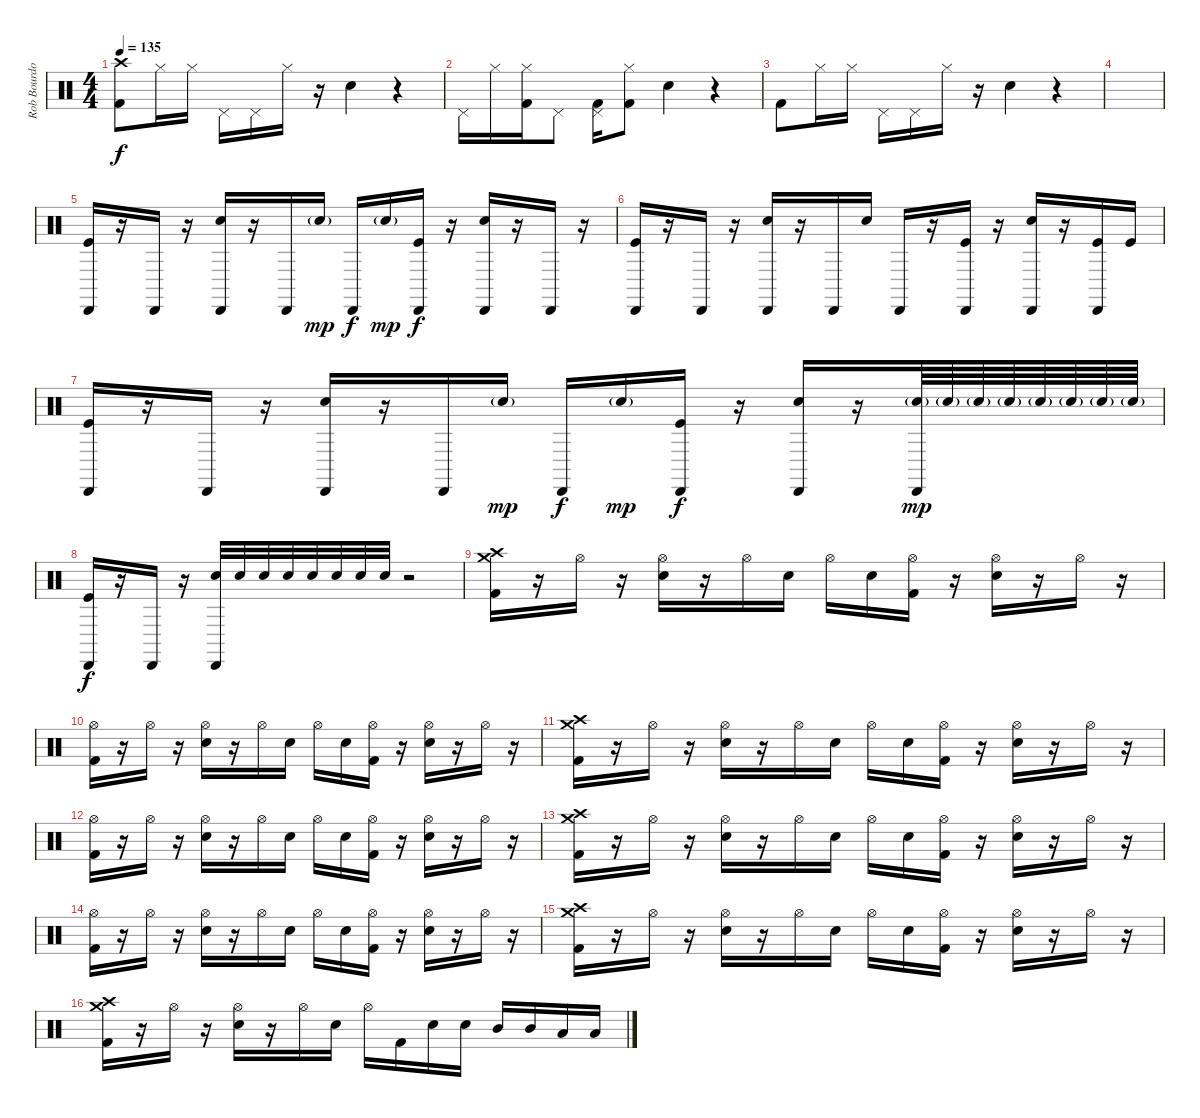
\track ("Rob Bourdon (Drums)" "Rob Bourdo") {instrument percussion}
\staff {score}
\articulation defaults
\ts (4 4)
\tempo 135
\clef neutral
\ks c
("Crash high (hit)" "Kick (hit) 2").8{dy f} "Hi-Hat (closed)".16 "Hi-Hat (closed)".16 "Pedal Hi-Hat (hit)".16 "Pedal Hi-Hat (hit)".16 "Hi-Hat (closed)".16 r.16 "Electric Snare (hit)".4 r.4 |
"Pedal Hi-Hat (hit)".16 "Hi-Hat (closed)".16 ("Hi-Hat (closed)" "Kick (hit) 2").16 "Pedal Hi-Hat (hit)".8 ("Pedal Hi-Hat (hit)" "Kick (hit) 2").16 ("Hi-Hat (closed)" "Kick (hit) 2").8 "Electric Snare (hit)".4 r.4 |
"Kick (hit) 2".8 "Hi-Hat (closed)".16 "Hi-Hat (closed)".16 "Pedal Hi-Hat (hit)".16 "Pedal Hi-Hat (hit)".16 "Hi-Hat (closed)".16 r.16 "Electric Snare (hit)".4 r.4 |
|
("Cabasa (hit)" "Kick (hit)").16 r.16 "Cabasa (hit)".16 r.16 ("Cabasa (hit)" "Hand Clap (hit)").16 r.16 "Cabasa (hit)".16 "Hand Clap (hit)"{g}.16{dy mp} "Cabasa (hit)".16{dy f} "Hand Clap (hit)"{g}.16{dy mp} ("Cabasa (hit)" "Kick (hit)").16{dy f} r.16 ("Cabasa (hit)" "Hand Clap (hit)").16 r.16 "Cabasa (hit)".16 r.16 |
("Cabasa (hit)" "Kick (hit)").16 r.16 "Cabasa (hit)".16 r.16 ("Cabasa (hit)" "Hand Clap (hit)").16 r.16 "Cabasa (hit)".16 "Hand Clap (hit)".16 "Cabasa (hit)".16 r.16 ("Cabasa (hit)" "Kick (hit)").16 r.16 ("Cabasa (hit)" "Hand Clap (hit)").16 r.16 ("Cabasa (hit)" "Kick (hit)").16 "Kick (hit)".16 |
("Cabasa (hit)" "Kick (hit)").16 r.16 "Cabasa (hit)".16 r.16 ("Cabasa (hit)" "Hand Clap (hit)").16 r.16 "Cabasa (hit)".16 "Hand Clap (hit)"{g}.16{dy mp} "Cabasa (hit)".16{dy f} "Hand Clap (hit)"{g}.16{dy mp} ("Cabasa (hit)" "Kick (hit)").16{dy f} r.16 ("Cabasa (hit)" "Hand Clap (hit)").16 r.16 ("Cabasa (hit)" "Hand Clap (hit)"{g}).64{dy mp} "Hand Clap (hit)"{g}.64 "Hand Clap (hit)"{g}.64 "Hand Clap (hit)"{g}.64 "Hand Clap (hit)"{g}.64 "Hand Clap (hit)"{g}.64 "Hand Clap (hit)"{g}.64 "Hand Clap (hit)"{g}.64 |
("Cabasa (hit)" "Kick (hit)").16{dy f} r.16 "Cabasa (hit)".16 r.16 ("Cabasa (hit)" "Hand Clap (hit)").32 "Hand Clap (hit)".32 "Hand Clap (hit)".32 "Hand Clap (hit)".32 "Hand Clap (hit)".32 "Hand Clap (hit)".32 "Hand Clap (hit)".32 "Hand Clap (hit)".32 r.2 |
("Crash high (hit)" "Crash medium (hit)" "Kick (hit) 2").16 r.16 "Hi-Hat (open)".16 r.16 ("Hi-Hat (open)" "Electric Snare (hit)").16 r.16 "Hi-Hat (open)".16 "Electric Snare (hit)".16 "Hi-Hat (open)".16 "Electric Snare (hit)".16 ("Hi-Hat (open)" "Kick (hit) 2").16 r.16 ("Hi-Hat (open)" "Electric Snare (hit)").16 r.16 "Hi-Hat (open)".16 r.16 |
("Hi-Hat (open)" "Kick (hit) 2").16 r.16 "Hi-Hat (open)".16 r.16 ("Hi-Hat (open)" "Electric Snare (hit)").16 r.16 "Hi-Hat (open)".16 "Electric Snare (hit)".16 "Hi-Hat (open)".16 "Electric Snare (hit)".16 ("Hi-Hat (open)" "Kick (hit) 2").16 r.16 ("Hi-Hat (open)" "Electric Snare (hit)").16 r.16 "Hi-Hat (open)".16 r.16 |
("Crash high (hit)" "Crash medium (hit)" "Kick (hit) 2").16 r.16 "Hi-Hat (open)".16 r.16 ("Hi-Hat (open)" "Electric Snare (hit)").16 r.16 "Hi-Hat (open)".16 "Electric Snare (hit)".16 "Hi-Hat (open)".16 "Electric Snare (hit)".16 ("Hi-Hat (open)" "Kick (hit) 2").16 r.16 ("Hi-Hat (open)" "Electric Snare (hit)").16 r.16 "Hi-Hat (open)".16 r.16 |
("Hi-Hat (open)" "Kick (hit) 2").16 r.16 "Hi-Hat (open)".16 r.16 ("Hi-Hat (open)" "Electric Snare (hit)").16 r.16 "Hi-Hat (open)".16 "Electric Snare (hit)".16 "Hi-Hat (open)".16 "Electric Snare (hit)".16 ("Hi-Hat (open)" "Kick (hit) 2").16 r.16 ("Hi-Hat (open)" "Electric Snare (hit)").16 r.16 "Hi-Hat (open)".16 r.16 |
("Crash high (hit)" "Crash medium (hit)" "Kick (hit) 2").16 r.16 "Hi-Hat (open)".16 r.16 ("Hi-Hat (open)" "Electric Snare (hit)").16 r.16 "Hi-Hat (open)".16 "Electric Snare (hit)".16 "Hi-Hat (open)".16 "Electric Snare (hit)".16 ("Hi-Hat (open)" "Kick (hit) 2").16 r.16 ("Hi-Hat (open)" "Electric Snare (hit)").16 r.16 "Hi-Hat (open)".16 r.16 |
("Hi-Hat (open)" "Kick (hit) 2").16 r.16 "Hi-Hat (open)".16 r.16 ("Hi-Hat (open)" "Electric Snare (hit)").16 r.16 "Hi-Hat (open)".16 "Electric Snare (hit)".16 "Hi-Hat (open)".16 "Electric Snare (hit)".16 ("Hi-Hat (open)" "Kick (hit) 2").16 r.16 ("Hi-Hat (open)" "Electric Snare (hit)").16 r.16 "Hi-Hat (open)".16 r.16 |
("Crash high (hit)" "Crash medium (hit)" "Kick (hit) 2").16 r.16 "Hi-Hat (open)".16 r.16 ("Hi-Hat (open)" "Electric Snare (hit)").16 r.16 "Hi-Hat (open)".16 "Electric Snare (hit)".16 "Hi-Hat (open)".16 "Electric Snare (hit)".16 ("Hi-Hat (open)" "Kick (hit) 2").16 r.16 ("Hi-Hat (open)" "Electric Snare (hit)").16 r.16 "Hi-Hat (open)".16 r.16 |
("Crash high (hit)" "Crash medium (hit)" "Kick (hit) 2").16 r.16 "Hi-Hat (open)".16 r.16 ("Hi-Hat (open)" "Electric Snare (hit)").16 r.16 "Hi-Hat (open)".16 "Electric Snare (hit)".16 "Hi-Hat (open)".16 "Kick (hit) 2".16 "Electric Snare (hit)".16 "Electric Snare (hit)".16 "Mid Tom (hit)".16 "Mid Tom (hit)".16 "Low Tom (hit)".16 "Low Tom (hit)".16
